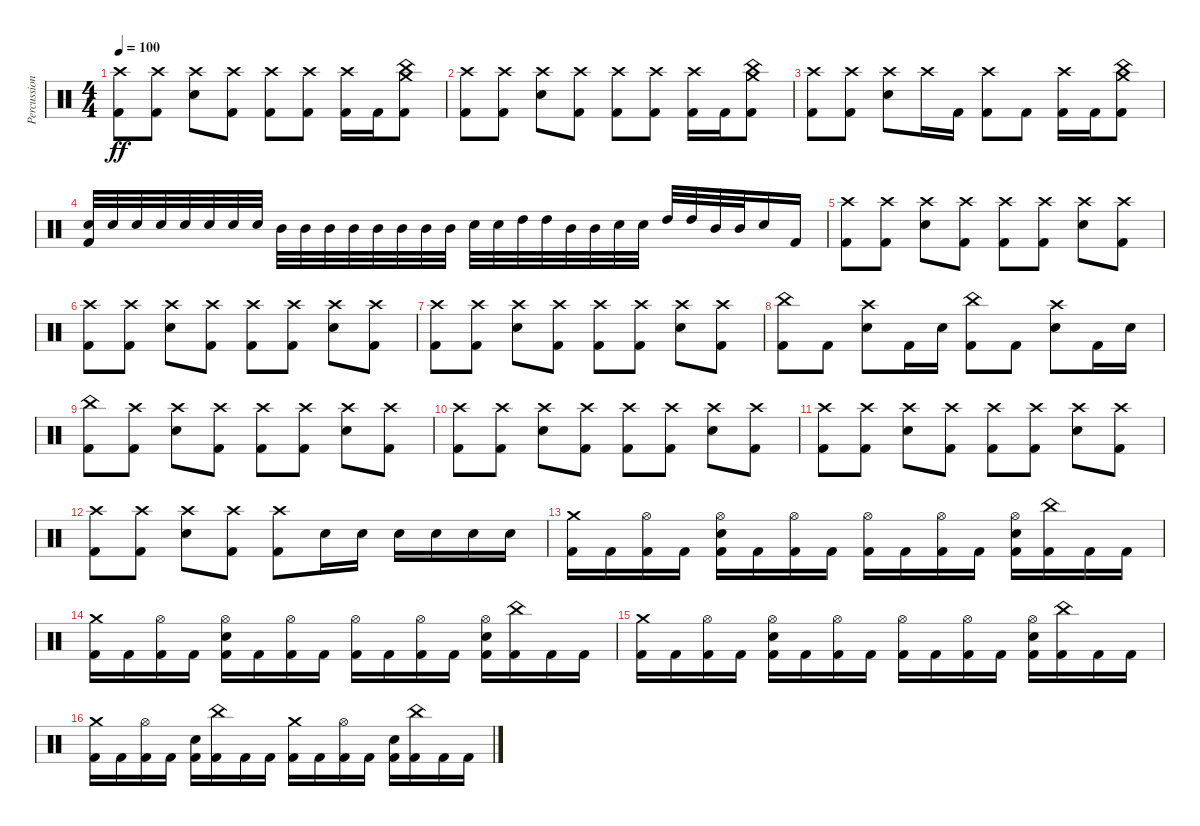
\track ("Percussion" "Percussion") {instrument percussion}
\staff {score}
\articulation defaults
\ts (4 4)
\tempo 100
\clef neutral
\ks c
("Crash high (hit)" "Kick (hit) 2").8{dy ff} ("Crash high (hit)" "Kick (hit) 2").8 ("Crash high (hit)" "Electric Snare (hit)").8 ("Crash high (hit)" "Kick (hit) 2").8 ("Crash high (hit)" "Kick (hit) 2").8 ("Crash high (hit)" "Kick (hit) 2").8 ("Crash high (hit)" "Kick (hit) 2").16 "Kick (hit) 2".16 ("China (hit)" "Crash medium (hit)" "Kick (hit) 2").8 |
("Crash high (hit)" "Kick (hit) 2").8 ("Crash high (hit)" "Kick (hit) 2").8 ("Crash high (hit)" "Electric Snare (hit)").8 ("Crash high (hit)" "Kick (hit) 2").8 ("Crash high (hit)" "Kick (hit) 2").8 ("Crash high (hit)" "Kick (hit) 2").8 ("Crash high (hit)" "Kick (hit) 2").16 "Kick (hit) 2".16 ("China (hit)" "Crash medium (hit)" "Kick (hit) 2").8 |
("Crash high (hit)" "Kick (hit) 2").8 ("Crash high (hit)" "Kick (hit) 2").8 ("Crash high (hit)" "Electric Snare (hit)").8 "Crash high (hit)".16 "Kick (hit) 2".16 ("Crash high (hit)" "Kick (hit) 2").8 "Kick (hit) 2".8 ("Crash high (hit)" "Kick (hit) 2").16 "Kick (hit) 2".16 ("China (hit)" "Crash medium (hit)" "Kick (hit) 2").8 |
("Electric Snare (hit)" "Kick (hit) 2").32 "Electric Snare (hit)".32 "Electric Snare (hit)".32 "Electric Snare (hit)".32 "Electric Snare (hit)".32 "Electric Snare (hit)".32 "Electric Snare (hit)".32 "Electric Snare (hit)".32 "Mid Tom (hit)".32 "Mid Tom (hit)".32 "Mid Tom (hit)".32 "Mid Tom (hit)".32 "Mid Tom (hit)".32 "Mid Tom (hit)".32 "Mid Tom (hit)".32 "Mid Tom (hit)".32 "Electric Snare (hit)".32 "Electric Snare (hit)".32 "High Tom (hit)".32 "High Tom (hit)".32 "Mid Tom (hit)".32 "Mid Tom (hit)".32 "Electric Snare (hit)".32 "Electric Snare (hit)".32 "High Tom (hit)".32 "High Tom (hit)".32 "Mid Tom (hit)".32 "Mid Tom (hit)".32 "Electric Snare (hit)".16 "Kick (hit) 2".16 |
("Crash high (hit)" "Kick (hit) 2").8 ("Crash high (hit)" "Kick (hit) 2").8 ("Crash high (hit)" "Electric Snare (hit)").8 ("Crash high (hit)" "Kick (hit) 2").8 ("Crash high (hit)" "Kick (hit) 2").8 ("Crash high (hit)" "Kick (hit) 2").8 ("Crash high (hit)" "Electric Snare (hit)").8 ("Crash high (hit)" "Kick (hit) 2").8 |
("Crash high (hit)" "Kick (hit) 2").8 ("Crash high (hit)" "Kick (hit) 2").8 ("Crash high (hit)" "Electric Snare (hit)").8 ("Crash high (hit)" "Kick (hit) 2").8 ("Crash high (hit)" "Kick (hit) 2").8 ("Crash high (hit)" "Kick (hit) 2").8 ("Crash high (hit)" "Electric Snare (hit)").8 ("Crash high (hit)" "Kick (hit) 2").8 |
("Crash high (hit)" "Kick (hit) 2").8 ("Crash high (hit)" "Kick (hit) 2").8 ("Crash high (hit)" "Electric Snare (hit)").8 ("Crash high (hit)" "Kick (hit) 2").8 ("Crash high (hit)" "Kick (hit) 2").8 ("Crash high (hit)" "Kick (hit) 2").8 ("Crash high (hit)" "Electric Snare (hit)").8 ("Crash high (hit)" "Kick (hit) 2").8 |
("China (hit)" "Kick (hit) 2").8 "Kick (hit) 2".8 ("Crash high (hit)" "Electric Snare (hit)").8 "Kick (hit) 2".16 "Electric Snare (hit)".16 ("China (hit)" "Kick (hit) 2").8 "Kick (hit) 2".8 ("Crash high (hit)" "Electric Snare (hit)").8 "Kick (hit) 2".16 "Electric Snare (hit)".16 |
("China (hit)" "Kick (hit) 2").8 ("Crash high (hit)" "Kick (hit) 2").8 ("Crash high (hit)" "Electric Snare (hit)").8 ("Crash high (hit)" "Kick (hit) 2").8 ("Crash high (hit)" "Kick (hit) 2").8 ("Crash high (hit)" "Kick (hit) 2").8 ("Crash high (hit)" "Electric Snare (hit)").8 ("Crash high (hit)" "Kick (hit) 2").8 |
("Crash high (hit)" "Kick (hit) 2").8 ("Crash high (hit)" "Kick (hit) 2").8 ("Crash high (hit)" "Electric Snare (hit)").8 ("Crash high (hit)" "Kick (hit) 2").8 ("Crash high (hit)" "Kick (hit) 2").8 ("Crash high (hit)" "Kick (hit) 2").8 ("Crash high (hit)" "Electric Snare (hit)").8 ("Crash high (hit)" "Kick (hit) 2").8 |
("Crash high (hit)" "Kick (hit) 2").8 ("Crash high (hit)" "Kick (hit) 2").8 ("Crash high (hit)" "Electric Snare (hit)").8 ("Crash high (hit)" "Kick (hit) 2").8 ("Crash high (hit)" "Kick (hit) 2").8 ("Crash high (hit)" "Kick (hit) 2").8 ("Crash high (hit)" "Electric Snare (hit)").8 ("Crash high (hit)" "Kick (hit) 2").8 |
("Crash high (hit)" "Kick (hit) 2").8 ("Crash high (hit)" "Kick (hit) 2").8 ("Crash high (hit)" "Electric Snare (hit)").8 ("Crash high (hit)" "Kick (hit) 2").8 ("Crash high (hit)" "Kick (hit) 2").8 "Electric Snare (hit)".16 "Electric Snare (hit)".16 "Electric Snare (hit)".16 "Electric Snare (hit)".16 "Electric Snare (hit)".16 "Electric Snare (hit)".16 |
("Crash medium (hit)" "Kick (hit) 2").16 "Kick (hit) 2".16 ("Hi-Hat (open)" "Kick (hit) 2").16 "Kick (hit) 2".16 ("Hi-Hat (open)" "Electric Snare (hit)" "Kick (hit) 2").16 "Kick (hit) 2".16 ("Hi-Hat (open)" "Kick (hit) 2").16 "Kick (hit) 2".16 ("Hi-Hat (open)" "Kick (hit) 2").16 "Kick (hit) 2".16 ("Hi-Hat (open)" "Kick (hit) 2").16 "Kick (hit) 2".16 ("Hi-Hat (open)" "Electric Snare (hit)" "Kick (hit) 2").16 ("China (hit)" "Kick (hit) 2").16 "Kick (hit) 2".16 "Kick (hit) 2".16 |
("Crash medium (hit)" "Kick (hit) 2").16 "Kick (hit) 2".16 ("Hi-Hat (open)" "Kick (hit) 2").16 "Kick (hit) 2".16 ("Hi-Hat (open)" "Electric Snare (hit)" "Kick (hit) 2").16 "Kick (hit) 2".16 ("Hi-Hat (open)" "Kick (hit) 2").16 "Kick (hit) 2".16 ("Hi-Hat (open)" "Kick (hit) 2").16 "Kick (hit) 2".16 ("Hi-Hat (open)" "Kick (hit) 2").16 "Kick (hit) 2".16 ("Hi-Hat (open)" "Electric Snare (hit)" "Kick (hit) 2").16 ("China (hit)" "Kick (hit) 2").16 "Kick (hit) 2".16 "Kick (hit) 2".16 |
("Crash medium (hit)" "Kick (hit) 2").16 "Kick (hit) 2".16 ("Hi-Hat (open)" "Kick (hit) 2").16 "Kick (hit) 2".16 ("Hi-Hat (open)" "Electric Snare (hit)" "Kick (hit) 2").16 "Kick (hit) 2".16 ("Hi-Hat (open)" "Kick (hit) 2").16 "Kick (hit) 2".16 ("Hi-Hat (open)" "Kick (hit) 2").16 "Kick (hit) 2".16 ("Hi-Hat (open)" "Kick (hit) 2").16 "Kick (hit) 2".16 ("Hi-Hat (open)" "Electric Snare (hit)" "Kick (hit) 2").16 ("China (hit)" "Kick (hit) 2").16 "Kick (hit) 2".16 "Kick (hit) 2".16 |
("Crash medium (hit)" "Kick (hit) 2").16 "Kick (hit) 2".16 ("Hi-Hat (open)" "Kick (hit) 2").16 "Kick (hit) 2".16 ("Electric Snare (hit)" "Kick (hit) 2").16 ("China (hit)" "Kick (hit) 2").16 "Kick (hit) 2".16 "Kick (hit) 2".16 ("Crash medium (hit)" "Kick (hit) 2").16 "Kick (hit) 2".16 ("Hi-Hat (open)" "Kick (hit) 2").16 "Kick (hit) 2".16 ("Electric Snare (hit)" "Kick (hit) 2").16 ("China (hit)" "Kick (hit) 2").16 "Kick (hit) 2".16 "Kick (hit) 2".16
